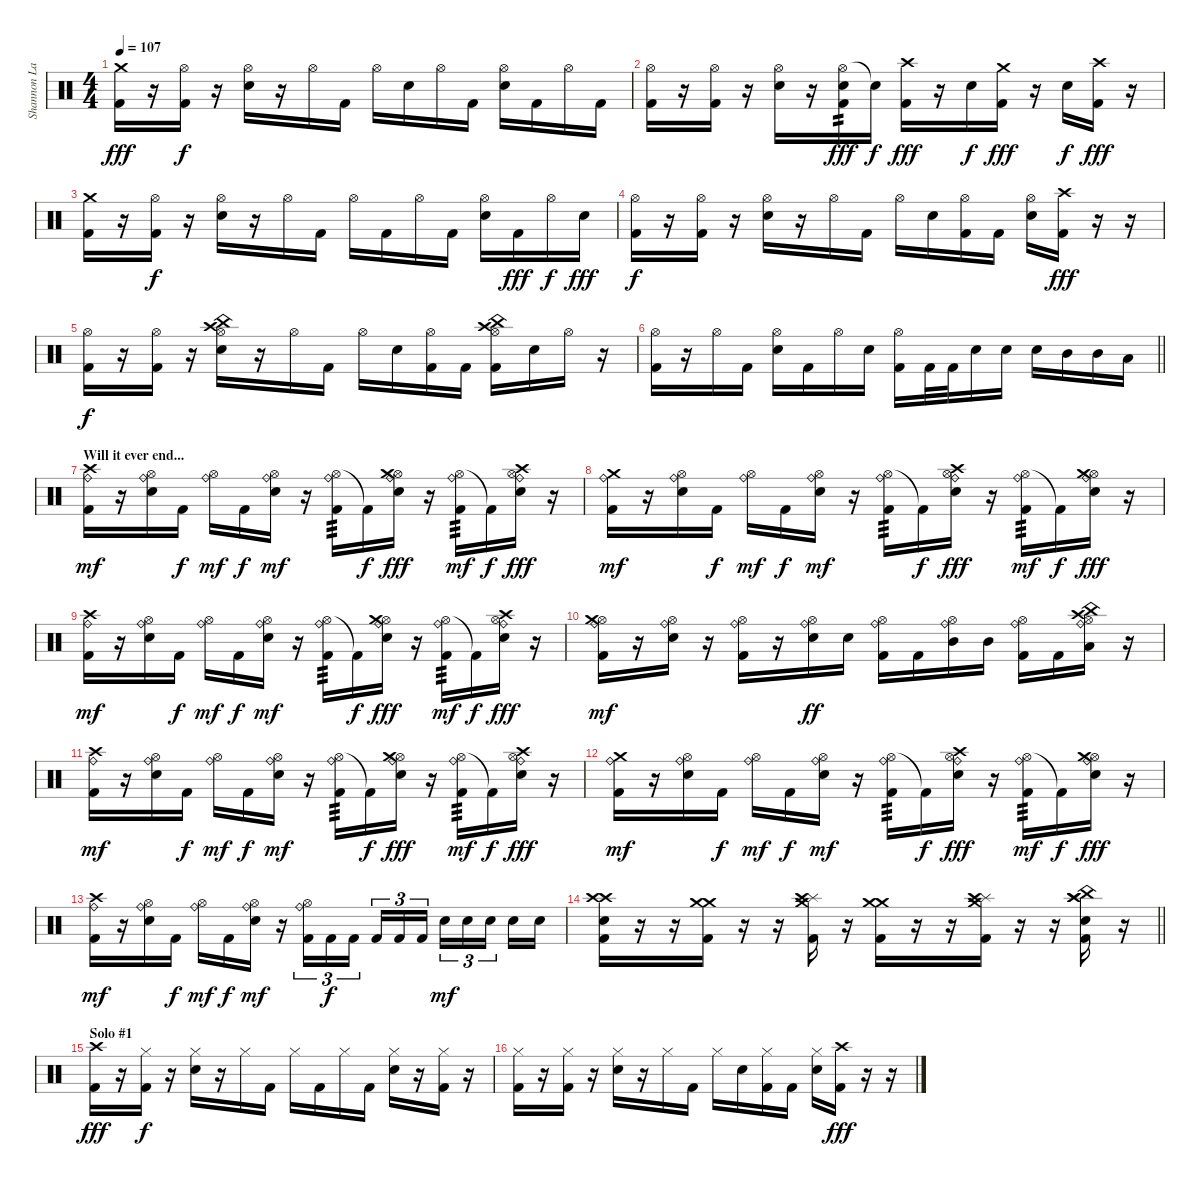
\track ("Shannon Larkin" "Shannon La") {instrument percussion}
\staff {score}
\articulation defaults
\ts (4 4)
\tempo 107
\clef neutral
\ks c
("Crash medium (hit)" "Kick (hit) 2").16{dy fff} r.16 ("Hi-Hat (open)" "Kick (hit) 2").16{dy f} r.16 ("Hi-Hat (open)" "Electric Snare (hit)").16 r.16 "Hi-Hat (open)".16 "Kick (hit) 2".16 "Hi-Hat (open)".16 "Electric Snare (hit)".16 "Hi-Hat (open)".16 "Kick (hit) 2".16 ("Hi-Hat (open)" "Electric Snare (hit)").16 "Kick (hit) 2".16 "Hi-Hat (open)".16 "Kick (hit) 2".16 |
("Hi-Hat (open)" "Kick (hit) 2").16 r.16 ("Hi-Hat (open)" "Kick (hit) 2").16 r.16 ("Hi-Hat (open)" "Electric Snare (hit)").16 r.16 ("Hi-Hat (open)" "Electric Snare (hit)" "Kick (hit) 2").16{tp 2 dy fff} "Electric Snare (hit)"{t}.16{dy f} ("Crash high (hit)" "Kick (hit) 2").16{dy fff} r.16 "Electric Snare (hit)".16{dy f} ("Crash medium (hit)" "Kick (hit) 2").16{dy fff} r.16 "Electric Snare (hit)".16{dy f} ("Crash high (hit)" "Kick (hit) 2").16{dy fff} r.16 |
("Crash medium (hit)" "Kick (hit) 2").16 r.16 ("Hi-Hat (open)" "Kick (hit) 2").16{dy f} r.16 ("Hi-Hat (open)" "Electric Snare (hit)").16 r.16 "Hi-Hat (open)".16 "Kick (hit) 2".16 "Hi-Hat (open)".16 "Kick (hit) 2".16 "Hi-Hat (open)".16 "Kick (hit) 2".16 ("Hi-Hat (open)" "Electric Snare (hit)").16 "Kick (hit) 2".16{dy fff} "Hi-Hat (open)".16{dy f} "Electric Snare (hit)".16{dy fff} |
("Hi-Hat (open)" "Kick (hit) 2").16{dy f} r.16 ("Hi-Hat (open)" "Kick (hit) 2").16 r.16 ("Hi-Hat (open)" "Electric Snare (hit)").16 r.16 "Hi-Hat (open)".16 "Kick (hit) 2".16 "Hi-Hat (open)".16 "Electric Snare (hit)".16 ("Hi-Hat (open)" "Kick (hit) 2").16 "Kick (hit) 2".16 ("Hi-Hat (open)" "Electric Snare (hit)").16 ("Crash high (hit)" "Kick (hit) 2").16{dy fff} r.16 r.16 |
("Hi-Hat (open)" "Kick (hit) 2").16{dy f} r.16 ("Hi-Hat (open)" "Kick (hit) 2").16 r.16 ("Hi-Hat (open)" "Electric Snare (hit)" "China (hit)" "Crash high (hit)").16 r.16 "Hi-Hat (open)".16 "Kick (hit) 2".16 "Hi-Hat (open)".16 "Electric Snare (hit)".16 ("Hi-Hat (open)" "Kick (hit) 2").16 "Kick (hit) 2".16 ("Hi-Hat (open)" "Kick (hit) 2" "China (hit)" "Crash high (hit)").16 "Electric Snare (hit)".16 "Hi-Hat (open)".16 r.16 |
\barLineRight lightlight
("Hi-Hat (open)" "Kick (hit) 2").16 r.16 "Hi-Hat (open)".16 "Kick (hit) 2".16 ("Hi-Hat (open)" "Electric Snare (hit)").16 "Kick (hit) 2".16 "Hi-Hat (open)".16 "Electric Snare (hit)".16 ("Hi-Hat (open)" "Kick (hit) 2").16 "Kick (hit) 2".32 "Kick (hit) 2".32 "Electric Snare (hit)".16 "Electric Snare (hit)".16 "Electric Snare (hit)".16 "Mid Tom (hit)".16 "Mid Tom (hit)".16 "Low Tom (hit)".16 |
\section ("" "Will it ever end...")
("Crash high (hit)" "Ride (bell)" "Kick (hit) 2").16{dy mf} r.16 ("Hi-Hat (open)" "Ride (bell)" "Electric Snare (hit)").16 "Kick (hit) 2".16{dy f} ("Hi-Hat (open)" "Ride (bell)").16{dy mf} "Kick (hit) 2".16{dy f} ("Hi-Hat (open)" "Ride (bell)" "Electric Snare (hit)").16{dy mf} r.16 ("Hi-Hat (open)" "Ride (bell)" "Kick (hit) 2").16{tp 3} "Kick (hit) 2"{t}.16{dy f} ("Hi-Hat (open)" "Ride (bell)" "Electric Snare (hit)" "Crash medium (hit)").16{dy fff} r.16 ("Hi-Hat (open)" "Ride (bell)" "Kick (hit) 2").16{tp 3 dy mf} "Kick (hit) 2"{t}.16{dy f} ("Hi-Hat (open)" "Ride (bell)" "Electric Snare (hit)" "Crash high (hit)").16{dy fff} r.16 |
("Crash medium (hit)" "Ride (bell)" "Kick (hit) 2").16{dy mf} r.16 ("Hi-Hat (open)" "Ride (bell)" "Electric Snare (hit)").16 "Kick (hit) 2".16{dy f} ("Hi-Hat (open)" "Ride (bell)").16{dy mf} "Kick (hit) 2".16{dy f} ("Hi-Hat (open)" "Ride (bell)" "Electric Snare (hit)").16{dy mf} r.16 ("Hi-Hat (open)" "Ride (bell)" "Kick (hit) 2").16{tp 3} "Kick (hit) 2"{t}.16{dy f} ("Hi-Hat (open)" "Ride (bell)" "Electric Snare (hit)" "Crash high (hit)").16{dy fff} r.16 ("Hi-Hat (open)" "Ride (bell)" "Kick (hit) 2").16{tp 3 dy mf} "Kick (hit) 2"{t}.16{dy f} ("Hi-Hat (open)" "Ride (bell)" "Electric Snare (hit)" "Crash medium (hit)").16{dy fff} r.16 |
("Crash high (hit)" "Ride (bell)" "Kick (hit) 2").16{dy mf} r.16 ("Hi-Hat (open)" "Ride (bell)" "Electric Snare (hit)").16 "Kick (hit) 2".16{dy f} ("Hi-Hat (open)" "Ride (bell)").16{dy mf} "Kick (hit) 2".16{dy f} ("Hi-Hat (open)" "Ride (bell)" "Electric Snare (hit)").16{dy mf} r.16 ("Hi-Hat (open)" "Ride (bell)" "Kick (hit) 2").16{tp 3} "Kick (hit) 2"{t}.16{dy f} ("Hi-Hat (open)" "Ride (bell)" "Electric Snare (hit)" "Crash medium (hit)").16{dy fff} r.16 ("Hi-Hat (open)" "Ride (bell)" "Kick (hit) 2").16{tp 3 dy mf} "Kick (hit) 2"{t}.16{dy f} ("Hi-Hat (open)" "Ride (bell)" "Electric Snare (hit)" "Crash high (hit)").16{dy fff} r.16 |
("Hi-Hat (open)" "Crash medium (hit)" "Ride (bell)" "Kick (hit) 2").16{dy mf} r.16 ("Hi-Hat (open)" "Ride (bell)" "Electric Snare (hit)").16 r.16 ("Hi-Hat (open)" "Ride (bell)" "Kick (hit) 2").16 r.16 ("Hi-Hat (open)" "Ride (bell)" "Electric Snare (hit)").16{dy ff} "Electric Snare (hit)".16 ("Hi-Hat (open)" "Ride (bell)" "Kick (hit) 2").16 "Kick (hit) 2".16 ("Hi-Hat (open)" "Ride (bell)" "Mid Tom (hit)").16 "Mid Tom (hit)".16 ("Hi-Hat (open)" "Ride (bell)" "Kick (hit) 2").16 "Kick (hit) 2".16 ("Hi-Hat (open)" "Ride (bell)" "Low Tom (hit)" "China (hit)" "Crash high (hit)").16 r.16 |
("Crash high (hit)" "Ride (bell)" "Kick (hit) 2").16{dy mf} r.16 ("Hi-Hat (open)" "Ride (bell)" "Electric Snare (hit)").16 "Kick (hit) 2".16{dy f} ("Hi-Hat (open)" "Ride (bell)").16{dy mf} "Kick (hit) 2".16{dy f} ("Hi-Hat (open)" "Ride (bell)" "Electric Snare (hit)").16{dy mf} r.16 ("Hi-Hat (open)" "Ride (bell)" "Kick (hit) 2").16{tp 3} "Kick (hit) 2"{t}.16{dy f} ("Hi-Hat (open)" "Ride (bell)" "Electric Snare (hit)" "Crash medium (hit)").16{dy fff} r.16 ("Hi-Hat (open)" "Ride (bell)" "Kick (hit) 2").16{tp 3 dy mf} "Kick (hit) 2"{t}.16{dy f} ("Hi-Hat (open)" "Ride (bell)" "Electric Snare (hit)" "Crash high (hit)").16{dy fff} r.16 |
("Crash medium (hit)" "Ride (bell)" "Kick (hit) 2").16{dy mf} r.16 ("Hi-Hat (open)" "Ride (bell)" "Electric Snare (hit)").16 "Kick (hit) 2".16{dy f} ("Hi-Hat (open)" "Ride (bell)").16{dy mf} "Kick (hit) 2".16{dy f} ("Hi-Hat (open)" "Ride (bell)" "Electric Snare (hit)").16{dy mf} r.16 ("Hi-Hat (open)" "Ride (bell)" "Kick (hit) 2").16{tp 3} "Kick (hit) 2"{t}.16{dy f} ("Hi-Hat (open)" "Ride (bell)" "Electric Snare (hit)" "Crash high (hit)").16{dy fff} r.16 ("Hi-Hat (open)" "Ride (bell)" "Kick (hit) 2").16{tp 3 dy mf} "Kick (hit) 2"{t}.16{dy f} ("Hi-Hat (open)" "Ride (bell)" "Electric Snare (hit)" "Crash medium (hit)").16{dy fff} r.16 |
("Crash high (hit)" "Ride (bell)" "Kick (hit) 2").16{dy mf} r.16 ("Hi-Hat (open)" "Ride (bell)" "Electric Snare (hit)").16 "Kick (hit) 2".16{dy f} ("Hi-Hat (open)" "Ride (bell)").16{dy mf} "Kick (hit) 2".16{dy f} ("Hi-Hat (open)" "Ride (bell)" "Electric Snare (hit)").16{dy mf} r.16 ("Hi-Hat (open)" "Ride (bell)" "Kick (hit) 2").16{tu (3 2)} "Kick (hit) 2".16{tu (3 2) dy f} "Kick (hit) 2".16{tu (3 2) beam splitsecondary} "Kick (hit) 2".16{tu (3 2)} "Kick (hit) 2".16{tu (3 2)} "Kick (hit) 2".16{tu (3 2)} "Electric Snare (hit)".16{tu (3 2) dy mf} "Electric Snare (hit)".16{tu (3 2)} "Electric Snare (hit)".16{tu (3 2) beam splitsecondary} "Electric Snare (hit)".16 "Electric Snare (hit)".16 |
\barLineRight lightlight
("Kick (hit) 2" "Electric Snare (hit)" "Crash high (hit)" "Crash high (hit)").16 r.16 r.16 ("Kick (hit) 2" "Crash medium (hit)" "Crash medium (hit)").16 r.16 r.16 ("Kick (hit) 2" "Crash medium (hit)" "Splash (hit)" "Crash high (hit)").16 r.16 ("Kick (hit) 2" "Crash medium (hit)" "Crash medium (hit)").16 r.16 r.16 ("Kick (hit) 2" "Crash medium (hit)" "Splash (hit)" "Crash high (hit)").16 r.16 r.16 ("Kick (hit) 2" "Electric Snare (hit)" "China (hit)" "Crash high (hit)" "Crash high (hit)").16 r.16 |
\section ("" "Solo #1")
("Crash high (hit)" "Kick (hit) 2").16{dy fff} r.16 ("Hi-Hat (closed)" "Kick (hit) 2").16{dy f} r.16 ("Hi-Hat (closed)" "Electric Snare (hit)").16 r.16 "Hi-Hat (closed)".16 "Kick (hit) 2".16 "Hi-Hat (closed)".16 "Kick (hit) 2".16 "Hi-Hat (closed)".16 "Kick (hit) 2".16 ("Hi-Hat (closed)" "Electric Snare (hit)").16 r.16 ("Hi-Hat (closed)" "Kick (hit) 2").16 r.16 |
("Hi-Hat (closed)" "Kick (hit) 2").16 r.16 ("Hi-Hat (closed)" "Kick (hit) 2").16 r.16 ("Hi-Hat (closed)" "Electric Snare (hit)").16 r.16 "Hi-Hat (closed)".16 "Kick (hit) 2".16 "Hi-Hat (closed)".16 "Electric Snare (hit)".16 ("Hi-Hat (closed)" "Kick (hit) 2").16 "Kick (hit) 2".16 ("Hi-Hat (closed)" "Electric Snare (hit)").16 ("Crash high (hit)" "Kick (hit) 2").16{dy fff} r.16 r.16
